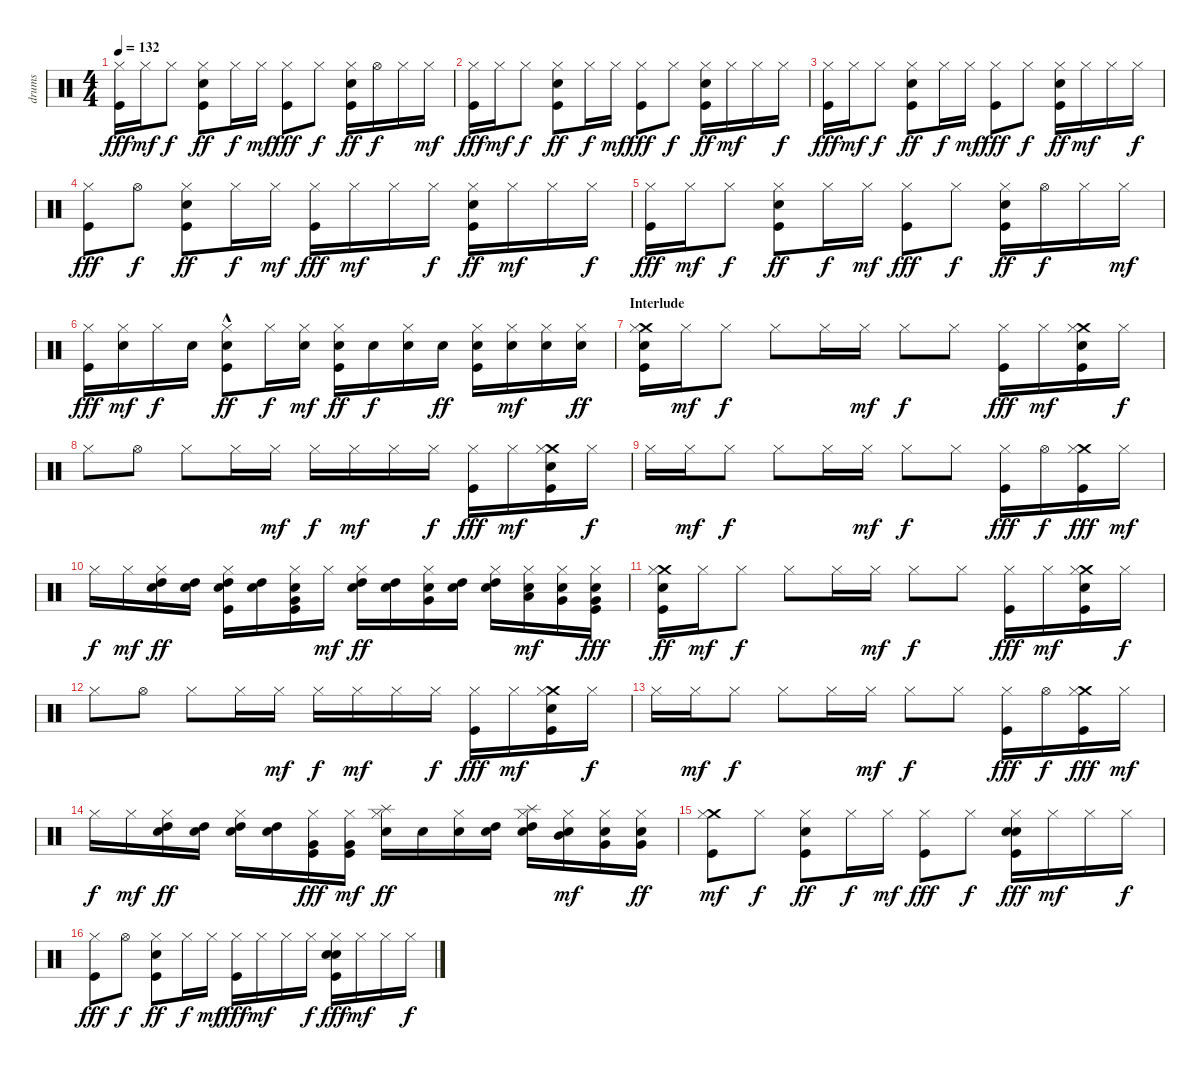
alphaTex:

\track ("drums" "drums") {instrument percussion}
\staff {score}
\articulation defaults
\ts (4 4)
\tempo 132
\clef neutral
\ks c
("Kick (hit)" "Hi-Hat (closed)").16{dy fff} "Hi-Hat (closed)".16{dy mf} "Hi-Hat (closed)".8{dy f} ("Kick (hit)" "Electric Snare (hit)" "Hi-Hat (closed)").8{dy ff} "Hi-Hat (closed)".16{dy f} "Hi-Hat (closed)".16{dy mf} ("Kick (hit)" "Hi-Hat (closed)").8{dy fff} "Hi-Hat (closed)".8{dy f} ("Kick (hit)" "Electric Snare (hit)" "Hi-Hat (closed)").16{dy ff} "Hi-Hat (open)".16{dy f} "Hi-Hat (closed)".16 "Hi-Hat (closed)".16{dy mf} |
("Kick (hit)" "Hi-Hat (closed)").16{dy fff} "Hi-Hat (closed)".16{dy mf} "Hi-Hat (closed)".8{dy f} ("Kick (hit)" "Electric Snare (hit)" "Hi-Hat (closed)").8{dy ff} "Hi-Hat (closed)".16{dy f} "Hi-Hat (closed)".16{dy mf} ("Kick (hit)" "Hi-Hat (closed)").8{dy fff} "Hi-Hat (closed)".8{dy f} ("Kick (hit)" "Electric Snare (hit)" "Hi-Hat (closed)").16{dy ff} "Hi-Hat (closed)".16{dy mf} "Hi-Hat (closed)".16 "Hi-Hat (closed)".16{dy f} |
("Kick (hit)" "Hi-Hat (closed)").16{dy fff} "Hi-Hat (closed)".16{dy mf} "Hi-Hat (closed)".8{dy f} ("Kick (hit)" "Electric Snare (hit)" "Hi-Hat (closed)").8{dy ff} "Hi-Hat (closed)".16{dy f} "Hi-Hat (closed)".16{dy mf} ("Kick (hit)" "Hi-Hat (closed)").8{dy fff} "Hi-Hat (closed)".8{dy f} ("Kick (hit)" "Electric Snare (hit)" "Hi-Hat (closed)").16{dy ff} "Hi-Hat (closed)".16{dy mf} "Hi-Hat (closed)".16 "Hi-Hat (closed)".16{dy f} |
("Kick (hit)" "Hi-Hat (closed)").8{dy fff} "Hi-Hat (open)".8{dy f} ("Kick (hit)" "Electric Snare (hit)" "Hi-Hat (closed)").8{dy ff} "Hi-Hat (closed)".16{dy f} "Hi-Hat (closed)".16{dy mf} ("Kick (hit)" "Hi-Hat (closed)").16{dy fff} "Hi-Hat (closed)".16{dy mf} "Hi-Hat (closed)".16 "Hi-Hat (closed)".16{dy f} ("Kick (hit)" "Electric Snare (hit)" "Hi-Hat (closed)").16{dy ff} "Hi-Hat (closed)".16{dy mf} "Hi-Hat (closed)".16 "Hi-Hat (closed)".16{dy f} |
("Kick (hit)" "Hi-Hat (closed)").16{dy fff} "Hi-Hat (closed)".16{dy mf} "Hi-Hat (closed)".8{dy f} ("Kick (hit)" "Electric Snare (hit)" "Hi-Hat (closed)").8{dy ff} "Hi-Hat (closed)".16{dy f} "Hi-Hat (closed)".16{dy mf} ("Kick (hit)" "Hi-Hat (closed)").8{dy fff} "Hi-Hat (closed)".8{dy f} ("Kick (hit)" "Electric Snare (hit)" "Hi-Hat (closed)").16{dy ff} "Hi-Hat (open)".16{dy f} "Hi-Hat (closed)".16 "Hi-Hat (closed)".16{dy mf} |
("Kick (hit)" "Hi-Hat (closed)").16{dy fff} ("Electric Snare (hit)" "Hi-Hat (closed)").16{dy mf} "Hi-Hat (closed)".16{dy f} "Electric Snare (hit)".16 ("Kick (hit)"{hac} "Electric Snare (hit)"{hac} "Hi-Hat (closed)").8{dy ff} "Hi-Hat (closed)".16{dy f} ("Electric Snare (hit)" "Hi-Hat (closed)").16{dy mf} ("Kick (hit)" "Electric Snare (hit)" "Hi-Hat (closed)").16{dy ff} "Electric Snare (hit)".16{dy f} ("Electric Snare (hit)" "Hi-Hat (closed)").16 "Electric Snare (hit)".16{dy ff} ("Kick (hit)" "Electric Snare (hit)" "Hi-Hat (closed)").16 ("Electric Snare (hit)" "Hi-Hat (closed)").16{dy mf} ("Electric Snare (hit)" "Hi-Hat (closed)").16 ("Electric Snare (hit)" "Hi-Hat (closed)").16{dy ff} |
\section ("" "Interlude")
("Kick (hit)" "Electric Snare (hit)" "Crash medium (hit)" "Hi-Hat (closed)").16 "Hi-Hat (closed)".16{dy mf} "Hi-Hat (closed)".8{dy f} "Hi-Hat (closed)".8 "Hi-Hat (closed)".16 "Hi-Hat (closed)".16{dy mf} "Hi-Hat (closed)".8{dy f} "Hi-Hat (closed)".8 ("Kick (hit)" "Hi-Hat (closed)").16{dy fff} "Hi-Hat (closed)".16{dy mf} ("Kick (hit)" "Electric Snare (hit)" "Crash medium (hit)" "Hi-Hat (closed)").16 "Hi-Hat (closed)".16{dy f} |
"Hi-Hat (closed)".8 "Hi-Hat (open)".8 "Hi-Hat (closed)".8 "Hi-Hat (closed)".16 "Hi-Hat (closed)".16{dy mf} "Hi-Hat (closed)".16{dy f} "Hi-Hat (closed)".16{dy mf} "Hi-Hat (closed)".16 "Hi-Hat (closed)".16{dy f} ("Kick (hit)" "Hi-Hat (closed)").16{dy fff} "Hi-Hat (closed)".16{dy mf} ("Kick (hit)" "Electric Snare (hit)" "Crash medium (hit)" "Hi-Hat (closed)").16 "Hi-Hat (closed)".16{dy f} |
"Hi-Hat (closed)".16 "Hi-Hat (closed)".16{dy mf} "Hi-Hat (closed)".8{dy f} "Hi-Hat (closed)".8 "Hi-Hat (closed)".16 "Hi-Hat (closed)".16{dy mf} "Hi-Hat (closed)".8{dy f} "Hi-Hat (closed)".8 ("Kick (hit)" "Hi-Hat (closed)").16{dy fff} "Hi-Hat (open)".16{dy f} ("Kick (hit)" "Crash medium (hit)" "Hi-Hat (closed)").16{dy fff} "Hi-Hat (closed)".16{dy mf} |
"Hi-Hat (closed)".16{dy f} "Hi-Hat (closed)".16{dy mf} ("Electric Snare (hit)" "High Tom (hit)" "Hi-Hat (closed)").16{dy ff} ("Electric Snare (hit)" "High Tom (hit)").16 ("Kick (hit)" "Electric Snare (hit)" "High Tom (hit)" "Hi-Hat (closed)").16 ("Electric Snare (hit)" "High Tom (hit)").16 ("Kick (hit)" "Electric Snare (hit)" "Very Low Tom (hit)" "Hi-Hat (closed)").16 "Hi-Hat (closed)".16{dy mf} ("Electric Snare (hit)" "High Tom (hit)" "Hi-Hat (closed)").16{dy ff} ("Electric Snare (hit)" "High Tom (hit)").16 ("Electric Snare (hit)" "Very Low Tom (hit)" "Hi-Hat (closed)").16 ("Electric Snare (hit)" "High Tom (hit)").16 ("Electric Snare (hit)" "High Tom (hit)" "Hi-Hat (closed)").16 ("Electric Snare (hit)" "Low Tom (hit)" "Hi-Hat (closed)").16{dy mf} ("Electric Snare (hit)" "Very Low Tom (hit)" "Hi-Hat (closed)").16 ("Kick (hit)" "Electric Snare (hit)" "Very Low Tom (hit)" "Hi-Hat (closed)").16{dy fff} |
("Kick (hit)" "Electric Snare (hit)" "Crash medium (hit)" "Hi-Hat (closed)").16{dy ff} "Hi-Hat (closed)".16{dy mf} "Hi-Hat (closed)".8{dy f} "Hi-Hat (closed)".8 "Hi-Hat (closed)".16 "Hi-Hat (closed)".16{dy mf} "Hi-Hat (closed)".8{dy f} "Hi-Hat (closed)".8 ("Kick (hit)" "Hi-Hat (closed)").16{dy fff} "Hi-Hat (closed)".16{dy mf} ("Kick (hit)" "Electric Snare (hit)" "Crash medium (hit)" "Hi-Hat (closed)").16 "Hi-Hat (closed)".16{dy f} |
"Hi-Hat (closed)".8 "Hi-Hat (open)".8 "Hi-Hat (closed)".8 "Hi-Hat (closed)".16 "Hi-Hat (closed)".16{dy mf} "Hi-Hat (closed)".16{dy f} "Hi-Hat (closed)".16{dy mf} "Hi-Hat (closed)".16 "Hi-Hat (closed)".16{dy f} ("Kick (hit)" "Hi-Hat (closed)").16{dy fff} "Hi-Hat (closed)".16{dy mf} ("Kick (hit)" "Electric Snare (hit)" "Crash medium (hit)" "Hi-Hat (closed)").16 "Hi-Hat (closed)".16{dy f} |
"Hi-Hat (closed)".16 "Hi-Hat (closed)".16{dy mf} "Hi-Hat (closed)".8{dy f} "Hi-Hat (closed)".8 "Hi-Hat (closed)".16 "Hi-Hat (closed)".16{dy mf} "Hi-Hat (closed)".8{dy f} "Hi-Hat (closed)".8 ("Kick (hit)" "Hi-Hat (closed)").16{dy fff} "Hi-Hat (open)".16{dy f} ("Kick (hit)" "Crash medium (hit)" "Hi-Hat (closed)").16{dy fff} "Hi-Hat (closed)".16{dy mf} |
"Hi-Hat (closed)".16{dy f} "Hi-Hat (closed)".16{dy mf} ("High Tom (hit)" "Electric Snare (hit)" "Hi-Hat (closed)").16{dy ff} ("High Tom (hit)" "Electric Snare (hit)").16 ("High Tom (hit)" "Electric Snare (hit)" "Hi-Hat (closed)").16 ("High Tom (hit)" "Electric Snare (hit)").16 ("Very Low Tom (hit)" "Kick (hit)" "Hi-Hat (closed)").16{dy fff} ("Very Low Tom (hit)" "Kick (hit)" "Hi-Hat (closed)").16{dy mf} ("Electric Snare (hit)" "Splash (hit)" "Hi-Hat (closed)").16{dy ff} "Electric Snare (hit)".16 ("Electric Snare (hit)" "Hi-Hat (closed)").16 ("High Tom (hit)" "Electric Snare (hit)").16 ("High Tom (hit)" "Electric Snare (hit)" "Splash (hit)" "Hi-Hat (closed)").16 ("Mid Tom (hit)" "Electric Snare (hit)" "Hi-Hat (closed)").16{dy mf} ("Very Low Tom (hit)" "Electric Snare (hit)" "Hi-Hat (closed)").16 ("Very Low Tom (hit)" "Electric Snare (hit)" "Hi-Hat (closed)").16{dy ff} |
("Kick (hit)" "Crash medium (hit)" "Hi-Hat (closed)").8{dy mf} "Hi-Hat (closed)".8{dy f} ("Kick (hit)" "Electric Snare (hit)" "Hi-Hat (closed)").8{dy ff} "Hi-Hat (closed)".16{dy f} "Hi-Hat (closed)".16{dy mf} ("Kick (hit)" "Hi-Hat (closed)").8{dy fff} "Hi-Hat (closed)".8{dy f} ("Kick (hit)" "Electric Snare (hit)" "Hand Clap (hit)" "Hi-Hat (closed)").16{dy fff} "Hi-Hat (closed)".16{dy mf} "Hi-Hat (closed)".16 "Hi-Hat (closed)".16{dy f} |
("Kick (hit)" "Hi-Hat (closed)").8{dy fff} "Hi-Hat (open)".8{dy f} ("Kick (hit)" "Electric Snare (hit)" "Hi-Hat (closed)").8{dy ff} "Hi-Hat (closed)".16{dy f} "Hi-Hat (closed)".16{dy mf} ("Kick (hit)" "Hi-Hat (closed)").16{dy fff} "Hi-Hat (closed)".16{dy mf} "Hi-Hat (closed)".16 "Hi-Hat (closed)".16{dy f} ("Kick (hit)" "Electric Snare (hit)" "Hand Clap (hit)" "Hi-Hat (closed)").16{dy fff} "Hi-Hat (closed)".16{dy mf} "Hi-Hat (closed)".16 "Hi-Hat (closed)".16{dy f}
